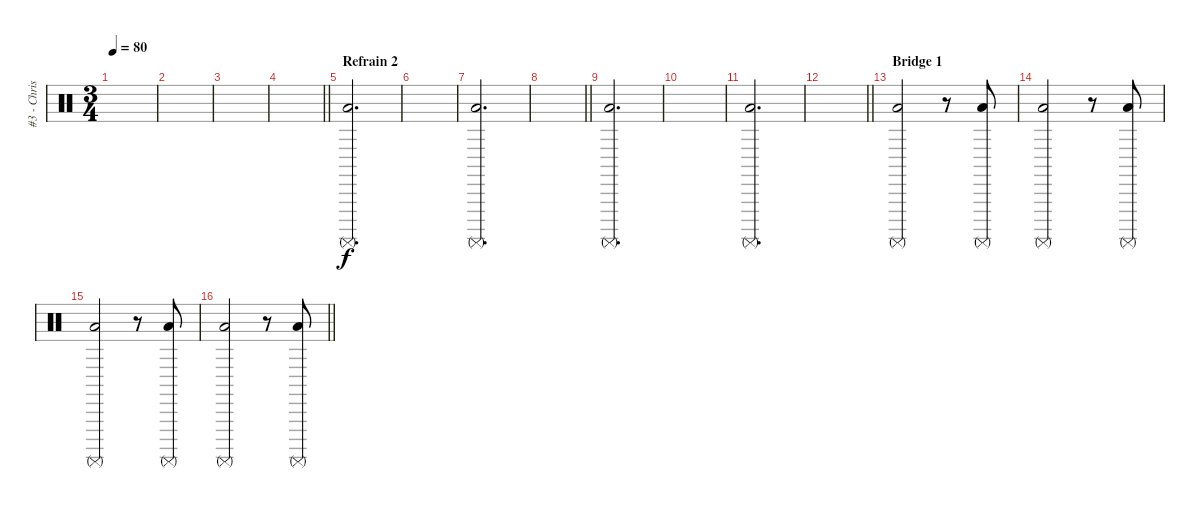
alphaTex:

\track ("#3 - Chris Fehn" "#3 - Chris") {instrument percussion}
\staff {score}
\articulation defaults
\ts (3 4)
\tempo 80
\clef neutral
\ks c
|
|
|
\barLineRight lightlight
|
\section ("" "Refrain 2")
("Low Floor Tom (hit)" "Surdo (mute)").2{d volume 16} |
|
("Low Floor Tom (hit)" "Surdo (mute)").2{d} |
\barLineRight lightlight
|
("Low Floor Tom (hit)" "Surdo (mute)").2{d volume 16} |
|
("Low Floor Tom (hit)" "Surdo (mute)").2{d} |
\barLineRight lightlight
|
\section ("" "Bridge 1")
("Low Floor Tom (hit)" "Surdo (mute)").2 r.8 ("Low Floor Tom (hit)" "Surdo (mute)").8 |
("Low Floor Tom (hit)" "Surdo (mute)").2 r.8 ("Low Floor Tom (hit)" "Surdo (mute)").8 |
("Low Floor Tom (hit)" "Surdo (mute)").2 r.8 ("Low Floor Tom (hit)" "Surdo (mute)").8 |
\barLineRight lightlight
("Low Floor Tom (hit)" "Surdo (mute)").2 r.8 ("Low Floor Tom (hit)" "Surdo (mute)").8
